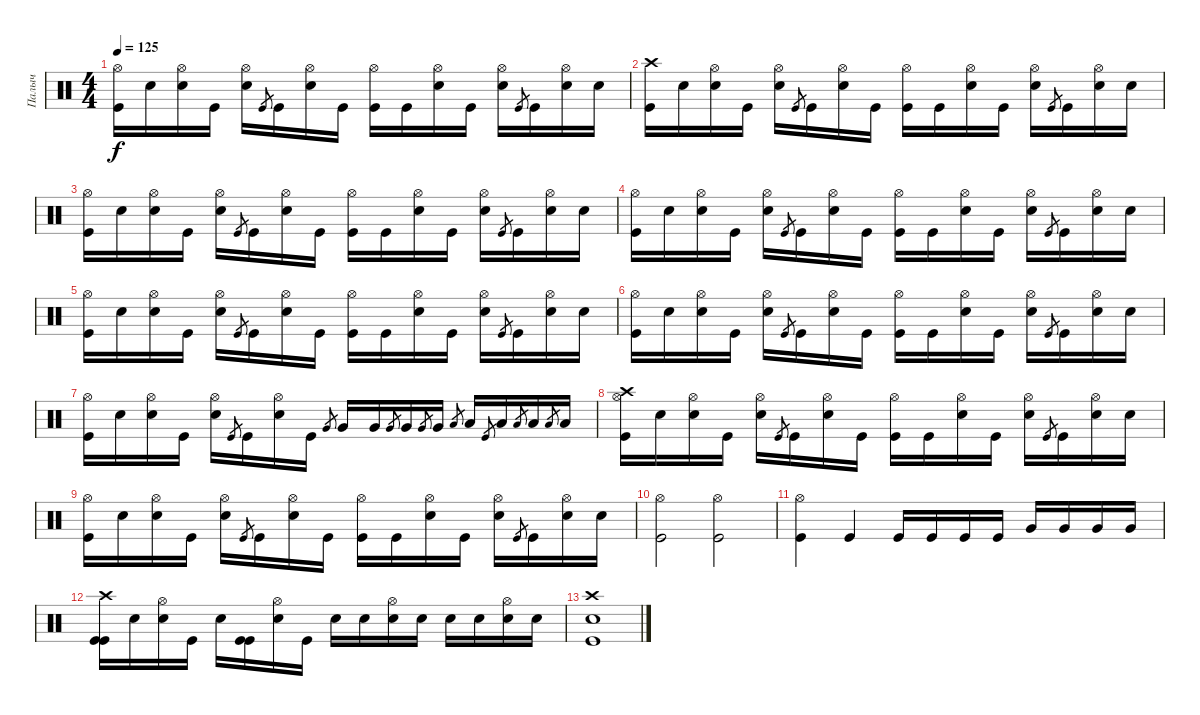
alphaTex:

\track ("Палыч" "Палыч") {instrument percussion}
\staff {score}
\articulation defaults
\ts (4 4)
\tempo 125
\clef neutral
\ks c
("Kick (hit)" "Hi-Hat (open)").16{dy f} "Snare (hit)"{x}.16 ("Snare (hit) 2" "Hi-Hat (open)").16 "Kick (hit)".16 ("Electric Snare (hit)"{x} "Hi-Hat (open)").16 "Kick (hit)".8{gr} "Kick (hit)".16 ("Snare (hit) 2" "Hi-Hat (open)").16 "Kick (hit)"{x}.16 ("Kick (hit)" "Hi-Hat (open)").16 "Kick (hit)"{x}.16 ("Snare (hit) 2" "Hi-Hat (open)").16 "Kick (hit)".16 ("Snare (hit)"{x} "Hi-Hat (open)").16 "Kick (hit)".8{gr} "Kick (hit)".16 ("Snare (hit) 2" "Hi-Hat (open)").16 "Snare (hit)"{x}.16 |
("Kick (hit)" "Crash high (hit)").16 "Snare (hit)"{x}.16 ("Snare (hit) 2" "Hi-Hat (open)").16 "Kick (hit)".16 ("Electric Snare (hit)"{x} "Hi-Hat (open)").16 "Kick (hit)".8{gr} "Kick (hit)".16 ("Snare (hit) 2" "Hi-Hat (open)").16 "Kick (hit)"{x}.16 ("Kick (hit)" "Hi-Hat (open)").16 "Kick (hit)"{x}.16 ("Snare (hit) 2" "Hi-Hat (open)").16 "Kick (hit)".16 ("Snare (hit)"{x} "Hi-Hat (open)").16 "Kick (hit)".8{gr} "Kick (hit)".16 ("Snare (hit) 2" "Hi-Hat (open)").16 "Snare (hit)"{x}.16 |
("Kick (hit)" "Hi-Hat (open)").16 "Snare (hit)"{x}.16 ("Snare (hit) 2" "Hi-Hat (open)").16 "Kick (hit)".16 ("Electric Snare (hit)"{x} "Hi-Hat (open)").16 "Kick (hit)".8{gr} "Kick (hit)".16 ("Snare (hit) 2" "Hi-Hat (open)").16 "Kick (hit)"{x}.16 ("Kick (hit)" "Hi-Hat (open)").16 "Kick (hit)"{x}.16 ("Snare (hit) 2" "Hi-Hat (open)").16 "Kick (hit)".16 ("Snare (hit)"{x} "Hi-Hat (open)").16 "Kick (hit)".8{gr} "Kick (hit)".16 ("Snare (hit) 2" "Hi-Hat (open)").16 "Snare (hit)"{x}.16 |
("Kick (hit)" "Hi-Hat (open)").16 "Snare (hit)"{x}.16 ("Snare (hit) 2" "Hi-Hat (open)").16 "Kick (hit)".16 ("Electric Snare (hit)"{x} "Hi-Hat (open)").16 "Kick (hit)".8{gr} "Kick (hit)".16 ("Snare (hit) 2" "Hi-Hat (open)").16 "Kick (hit)"{x}.16 ("Kick (hit)" "Hi-Hat (open)").16 "Kick (hit)"{x}.16 ("Snare (hit) 2" "Hi-Hat (open)").16 "Kick (hit)".16 ("Snare (hit)"{x} "Hi-Hat (open)").16 "Kick (hit)".8{gr} "Kick (hit)".16 ("Snare (hit) 2" "Hi-Hat (open)").16 "Snare (hit)"{x}.16 |
("Kick (hit)" "Hi-Hat (open)").16 "Snare (hit)"{x}.16 ("Snare (hit) 2" "Hi-Hat (open)").16 "Kick (hit)".16 ("Electric Snare (hit)"{x} "Hi-Hat (open)").16 "Kick (hit)".8{gr} "Kick (hit)".16 ("Snare (hit) 2" "Hi-Hat (open)").16 "Kick (hit)"{x}.16 ("Kick (hit)" "Hi-Hat (open)").16 "Kick (hit)"{x}.16 ("Snare (hit) 2" "Hi-Hat (open)").16 "Kick (hit)".16 ("Snare (hit)"{x} "Hi-Hat (open)").16 "Kick (hit)".8{gr} "Kick (hit)".16 ("Snare (hit) 2" "Hi-Hat (open)").16 "Snare (hit)"{x}.16 |
("Kick (hit)" "Hi-Hat (open)").16 "Snare (hit)"{x}.16 ("Snare (hit) 2" "Hi-Hat (open)").16 "Kick (hit)".16 ("Electric Snare (hit)"{x} "Hi-Hat (open)").16 "Kick (hit)".8{gr} "Kick (hit)".16 ("Snare (hit) 2" "Hi-Hat (open)").16 "Kick (hit)"{x}.16 ("Kick (hit)" "Hi-Hat (open)").16 "Kick (hit)"{x}.16 ("Snare (hit) 2" "Hi-Hat (open)").16 "Kick (hit)".16 ("Snare (hit)"{x} "Hi-Hat (open)").16 "Kick (hit)".8{gr} "Kick (hit)".16 ("Snare (hit) 2" "Hi-Hat (open)").16 "Snare (hit)"{x}.16 |
("Kick (hit)" "Hi-Hat (open)").16 "Snare (hit)"{x}.16 ("Snare (hit) 2" "Hi-Hat (open)").16 "Kick (hit)".16 ("Electric Snare (hit)"{x} "Hi-Hat (open)").16 "Kick (hit)".8{gr} "Kick (hit)".16 ("Snare (hit) 2" "Hi-Hat (open)").16 "Kick (hit)"{x}.16 "Very Low Tom (hit)".8{gr} "Very Low Tom (hit)".16 "Very Low Tom (hit)".16 "Very Low Tom (hit)".8{gr} "Very Low Tom (hit)".16 "Very Low Tom (hit)".8{gr} "Very Low Tom (hit)".16 "Low Floor Tom (hit)".8{gr} "Low Floor Tom (hit)".16 "Kick (hit)".8{gr} "Low Floor Tom (hit)".16 "Low Floor Tom (hit)".8{gr} "Low Floor Tom (hit)".16 "Low Floor Tom (hit)".8{gr} "Low Floor Tom (hit)".16 |
("Kick (hit)" "Crash high (hit)" "Hi-Hat (open)").16 "Snare (hit)"{x}.16 ("Snare (hit) 2" "Hi-Hat (open)").16 "Kick (hit)".16 ("Electric Snare (hit)"{x} "Hi-Hat (open)").16 "Kick (hit)".8{gr} "Kick (hit)".16 ("Snare (hit) 2" "Hi-Hat (open)").16 "Kick (hit)"{x}.16 ("Kick (hit)" "Hi-Hat (open)").16 "Kick (hit)"{x}.16 ("Snare (hit) 2" "Hi-Hat (open)").16 "Kick (hit)".16 ("Snare (hit)"{x} "Hi-Hat (open)").16 "Kick (hit)".8{gr} "Kick (hit)".16 ("Snare (hit) 2" "Hi-Hat (open)").16 "Snare (hit)"{x}.16 |
("Kick (hit)" "Hi-Hat (open)").16 "Snare (hit)"{x}.16 ("Snare (hit) 2" "Hi-Hat (open)").16 "Kick (hit)".16 ("Electric Snare (hit)"{x} "Hi-Hat (open)").16 "Kick (hit)".8{gr} "Kick (hit)".16 ("Snare (hit) 2" "Hi-Hat (open)").16 "Kick (hit)"{x}.16 ("Kick (hit)" "Hi-Hat (open)").16 "Kick (hit)"{x}.16 ("Snare (hit) 2" "Hi-Hat (open)").16 "Kick (hit)".16 ("Snare (hit)"{x} "Hi-Hat (open)").16 "Kick (hit)".8{gr} "Kick (hit)".16 ("Snare (hit) 2" "Hi-Hat (open)").16 "Snare (hit) 2".16 |
("Hi-Hat (open)" "Kick (hit)").2 ("Hi-Hat (open)" "Kick (hit)").2 |
("Kick (hit)" "Hi-Hat (open)").4 "Kick (hit)".4 "Kick (hit)".16 "Kick (hit)".16 "Kick (hit)".16 "Kick (hit)".16 "Very Low Tom (hit)".16 "Very Low Tom (hit)".16 "Very Low Tom (hit)".16 "Very Low Tom (hit)".16 |
("Kick (hit)" "Kick (hit)"{x} "Crash high (hit)").16 "Snare (hit)"{x}.16 ("Snare (hit) 2" "Hi-Hat (open)").16 "Kick (hit)"{x}.16 "Electric Snare (hit)"{x}.16 ("Kick (hit)" "Kick (hit)"{x}).16 ("Snare (hit) 2" "Hi-Hat (open)").16 "Kick (hit)"{x}.16 "Snare (hit) 2"{x}.16 "Snare (hit) 2"{x}.16 ("Snare (hit) 2" "Hi-Hat (open)").16 "Snare (hit) 2".16 "Snare (hit) 2".16 "Snare (hit) 2"{x}.16 ("Snare (hit) 2" "Hi-Hat (open)").16 "Snare (hit)"{x}.16 |
("Snare (hit) 2" "Crash high (hit)" "Kick (hit)").1
